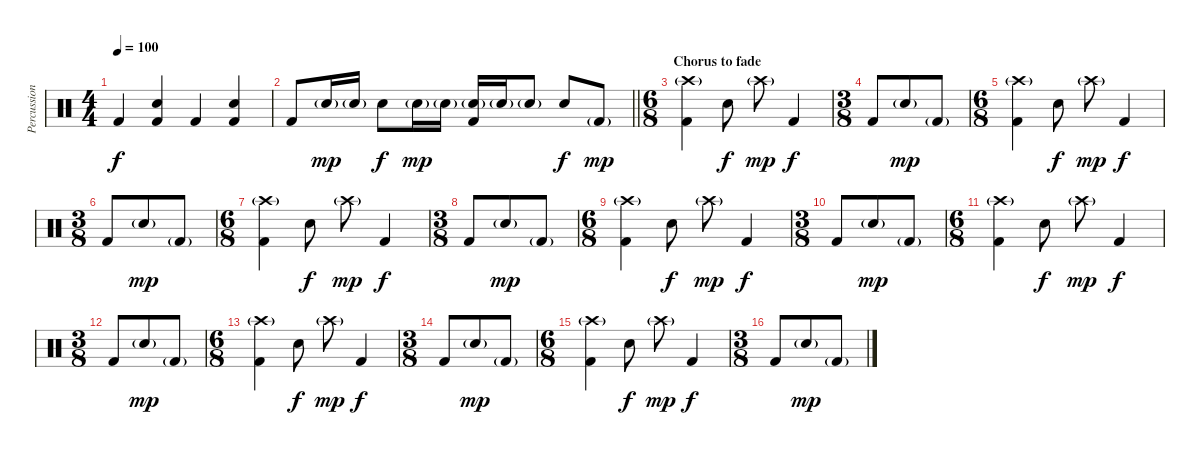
\track ("Percussion" "Percussion") {instrument percussion}
\staff {score}
\articulation defaults
\ts (4 4)
\tempo 100
\clef neutral
\ks c "Kick (hit) 2".4{dy f}
("Snare (hit) 2" "Kick (hit) 2").4 "Kick (hit) 2".4 ("Snare (hit) 2" "Kick (hit) 2").4 |
\barLineRight lightlight "Kick (hit) 2".8 "Snare (hit) 2"{g}.16{dy mp} "Snare (hit) 2"{g}.16 "Snare (hit) 2".8{dy f} "Snare (hit) 2"{g}.16{dy mp} "Snare (hit) 2"{g}.16
("Snare (hit) 2"{g} "Kick (hit) 2").16 "Snare (hit) 2"{g}.16 "Snare (hit) 2"{g}.8 "Snare (hit) 2".8{dy f} "Kick (hit) 2"{g}.8{dy mp} |
\ts (6 8)
\section ("" "Chorus to fade")
("Crash high (hit)"{g} "Kick (hit) 2").4 "Snare (hit) 2".8{dy f} "Crash high (hit)"{g}.8{dy mp} "Kick (hit) 2".4{dy f} |
\ts (3 8)
"Kick (hit) 2".8 "Snare (hit) 2"{g}.8{dy mp} "Kick (hit) 2"{g}.8 |
\ts (6 8)
("Crash high (hit)"{g} "Kick (hit) 2").4 "Snare (hit) 2".8{dy f} "Crash high (hit)"{g}.8{dy mp} "Kick (hit) 2".4{dy f} |
\ts (3 8)
"Kick (hit) 2".8 "Snare (hit) 2"{g}.8{dy mp} "Kick (hit) 2"{g}.8 |
\ts (6 8)
("Crash high (hit)"{g} "Kick (hit) 2").4 "Snare (hit) 2".8{dy f} "Crash high (hit)"{g}.8{dy mp} "Kick (hit) 2".4{dy f} |
\ts (3 8)
"Kick (hit) 2".8 "Snare (hit) 2"{g}.8{dy mp} "Kick (hit) 2"{g}.8 |
\ts (6 8)
("Crash high (hit)"{g} "Kick (hit) 2").4 "Snare (hit) 2".8{dy f} "Crash high (hit)"{g}.8{dy mp} "Kick (hit) 2".4{dy f} |
\ts (3 8)
"Kick (hit) 2".8 "Snare (hit) 2"{g}.8{dy mp} "Kick (hit) 2"{g}.8 |
\ts (6 8)
("Crash high (hit)"{g} "Kick (hit) 2").4 "Snare (hit) 2".8{dy f} "Crash high (hit)"{g}.8{dy mp} "Kick (hit) 2".4{dy f} |
\ts (3 8)
"Kick (hit) 2".8 "Snare (hit) 2"{g}.8{dy mp} "Kick (hit) 2"{g}.8 |
\ts (6 8)
("Crash high (hit)"{g} "Kick (hit) 2").4 "Snare (hit) 2".8{dy f} "Crash high (hit)"{g}.8{dy mp} "Kick (hit) 2".4{dy f} |
\ts (3 8)
"Kick (hit) 2".8 "Snare (hit) 2"{g}.8{dy mp} "Kick (hit) 2"{g}.8 |
\ts (6 8)
("Crash high (hit)"{g} "Kick (hit) 2").4 "Snare (hit) 2".8{dy f} "Crash high (hit)"{g}.8{dy mp} "Kick (hit) 2".4{dy f} |
\ts (3 8)
"Kick (hit) 2".8 "Snare (hit) 2"{g}.8{dy mp} "Kick (hit) 2"{g}.8
